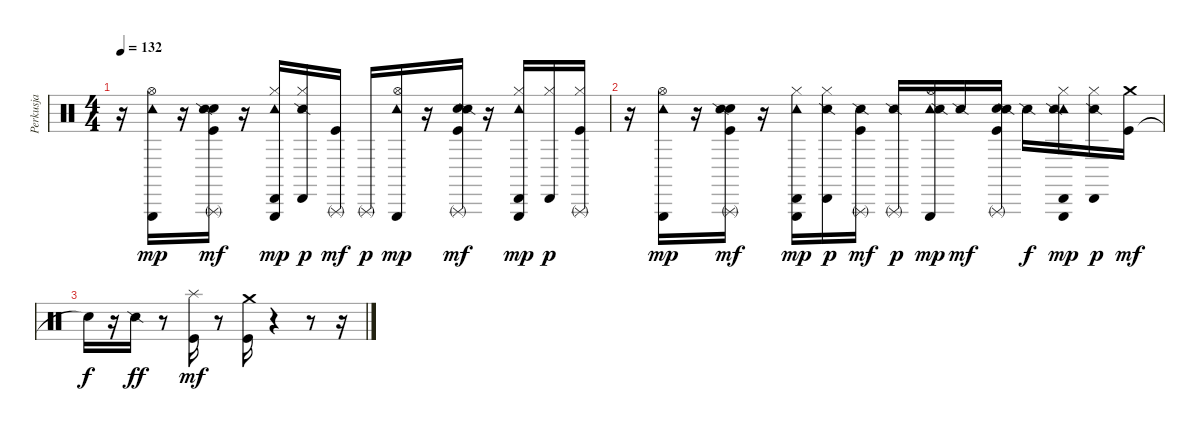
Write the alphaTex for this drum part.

\track ("Perkusja" "Perkusja") {instrument percussion}
\staff {score}
\articulation defaults
\ts (4 4)
\tempo 132
\clef neutral
\ks c
r.16{dy p} ("Tambourine (hit)" "Triangle (hit)" "Hi-Hat (open)").16{dy mp} r.16 ("Snare (hit) 2" "Snare (side stick) 2" "Triangle (rnute)" "Kick (hit)").16{dy mf} r.16 ("Tambourine (hit)" "Cabasa (hit)" "Triangle (hit)" "Hi-Hat (closed)").16{dy mp} ("Snare (side stick) 2" "Cabasa (hit)" "Hi-Hat (closed)").16{dy p} ("Triangle (rnute)" "Kick (hit)").16{dy mf} "Triangle (rnute)".16{dy p} ("Tambourine (hit)" "Triangle (hit)" "Hi-Hat (open)").16{dy mp} r.16 ("Snare (hit) 2" "Snare (side stick) 2" "Triangle (rnute)" "Kick (hit)").16{dy mf} r.16 ("Tambourine (hit)" "Cabasa (hit)" "Triangle (hit)" "Hi-Hat (closed)").16{dy mp} ("Cabasa (hit)" "Hi-Hat (closed)").16{dy p} ("Triangle (rnute)" "Kick (hit)" "Hi-Hat (closed)").16 |
r.16 ("Tambourine (hit)" "Triangle (hit)" "Hi-Hat (open)").16{dy mp} r.16 ("Snare (hit) 2" "Snare (side stick) 2" "Triangle (rnute)" "Kick (hit)").16{dy mf} r.16 ("Tambourine (hit)" "Cabasa (hit)" "Triangle (hit)" "Hi-Hat (closed)").16{dy mp} ("Snare (side stick) 2" "Cabasa (hit)" "Hi-Hat (closed)").16{dy p} ("Snare (side stick) 2" "Triangle (rnute)" "Kick (hit)").16{dy mf} ("Snare (side stick) 2" "Triangle (rnute)").16{dy p} ("Tambourine (hit)" "Snare (side stick) 2" "Triangle (hit)" "Hi-Hat (open)").16{dy mp} "Snare (side stick) 2".16{dy mf} ("Snare (hit) 2" "Snare (side stick) 2" "Triangle (rnute)" "Kick (hit)").16 "Snare (side stick) 2".16{dy f} ("Tambourine (hit)" "Snare (side stick) 2" "Cabasa (hit)" "Triangle (hit)" "Hi-Hat (closed)").16{dy mp} ("Snare (side stick) 2" "Cabasa (hit)" "Hi-Hat (closed)").16{dy p} ("Kick (hit)" "Crash medium (hit)").16{dy mf} |
"Snare (hit)"{t}.16{dy f} r.16 "Snare (side stick) 2".16{dy ff} r.8 ("Kick (hit)" "Splash (hit)").16{dy mf} r.8 ("Kick (hit)" "Crash medium (hit)").16 r.4 r.8 r.16
